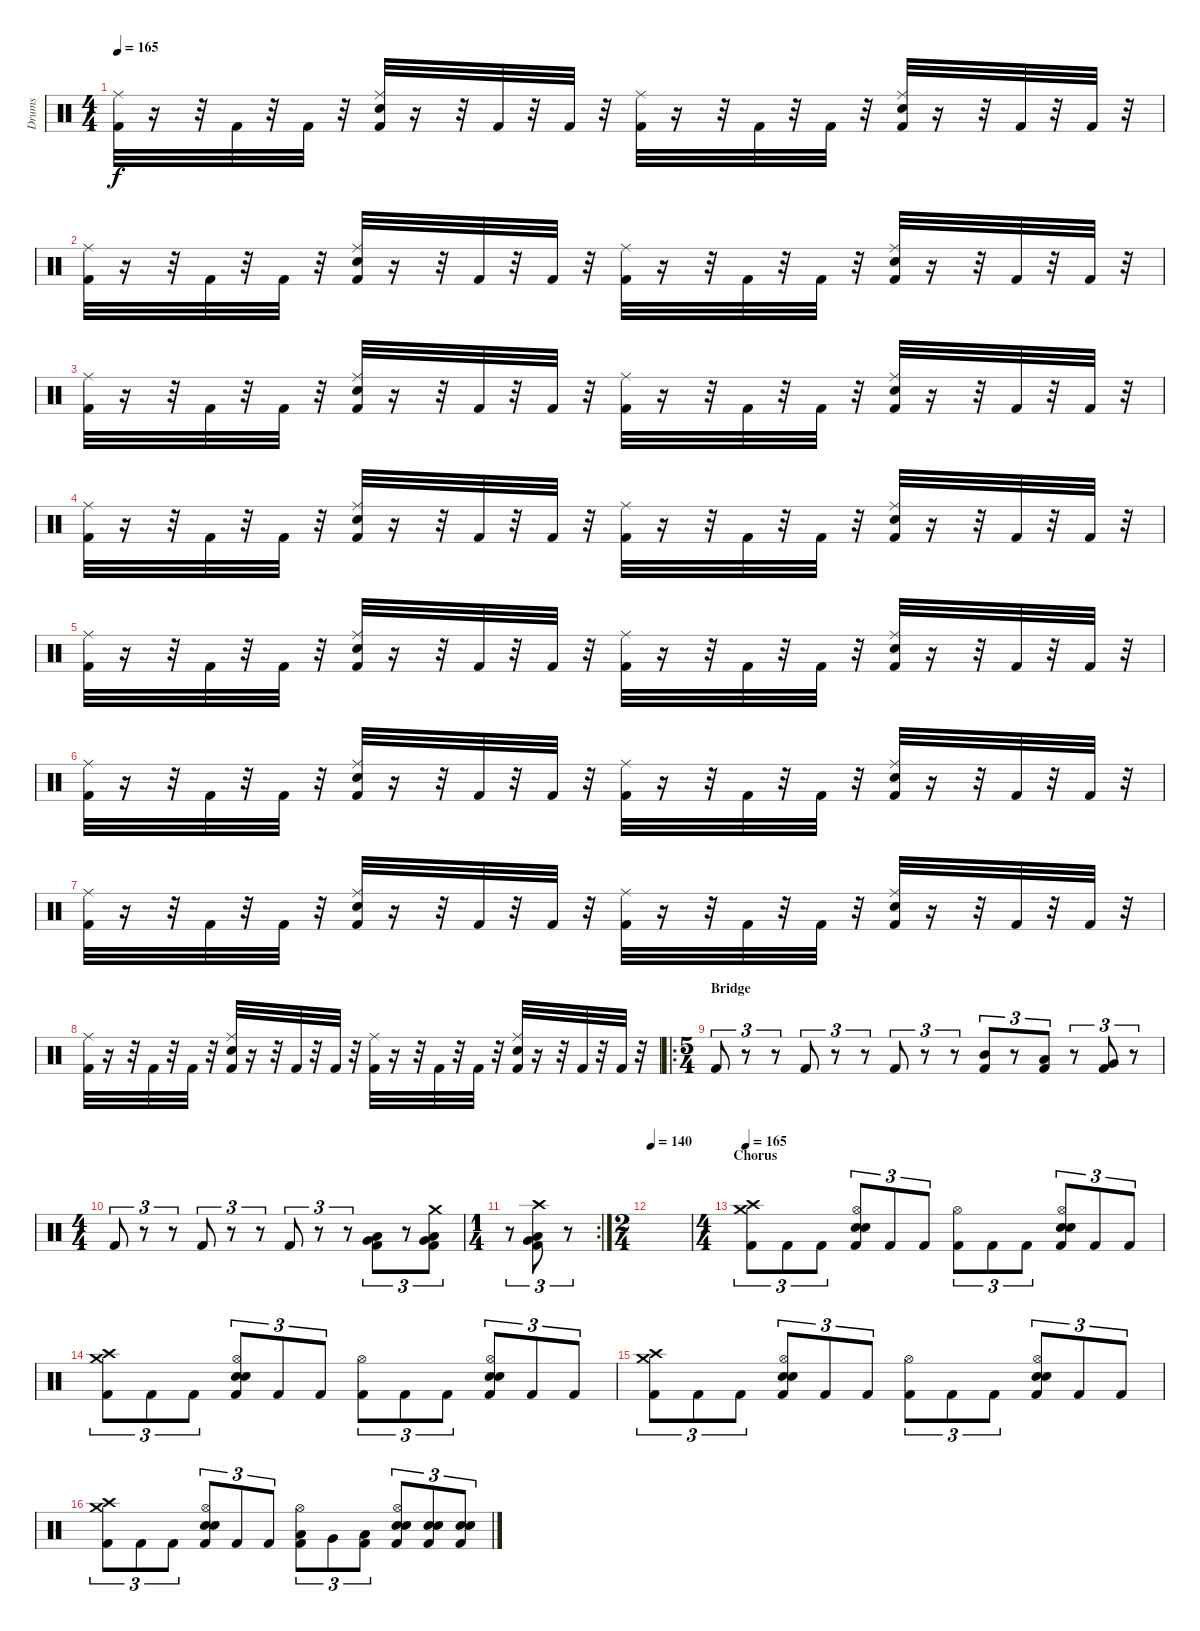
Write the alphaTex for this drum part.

\track ("Drums" "Drums") {instrument percussion}
\staff {score}
\articulation defaults
\ts (4 4)
\tempo 165
\clef neutral
\ks c
("Kick (hit) 2" "Ride (middle)").32{dy f} r.16 r.32 "Kick (hit) 2".32 r.32 "Kick (hit) 2".32 r.32 ("Ride (middle)" "Snare (hit) 2" "Kick (hit) 2").32 r.16 r.32 "Kick (hit) 2".32 r.32 "Kick (hit) 2".32 r.32 ("Kick (hit) 2" "Ride (middle)").32 r.16 r.32 "Kick (hit) 2".32 r.32 "Kick (hit) 2".32 r.32 ("Snare (hit) 2" "Ride (middle)" "Kick (hit) 2").32 r.16 r.32 "Kick (hit) 2".32 r.32 "Kick (hit) 2".32 r.32 |
("Ride (middle)" "Kick (hit) 2").32 r.16 r.32 "Kick (hit) 2".32 r.32 "Kick (hit) 2".32 r.32 ("Ride (middle)" "Snare (hit) 2" "Kick (hit) 2").32 r.16 r.32 "Kick (hit) 2".32 r.32 "Kick (hit) 2".32 r.32 ("Ride (middle)" "Kick (hit) 2").32 r.16 r.32 "Kick (hit) 2".32 r.32 "Kick (hit) 2".32 r.32 ("Ride (middle)" "Snare (hit) 2" "Kick (hit) 2").32 r.16 r.32 "Kick (hit) 2".32 r.32 "Kick (hit) 2".32 r.32 |
("Kick (hit) 2" "Ride (middle)").32 r.16 r.32 "Kick (hit) 2".32 r.32 "Kick (hit) 2".32 r.32 ("Ride (middle)" "Snare (hit) 2" "Kick (hit) 2").32 r.16 r.32 "Kick (hit) 2".32 r.32 "Kick (hit) 2".32 r.32 ("Kick (hit) 2" "Ride (middle)").32 r.16 r.32 "Kick (hit) 2".32 r.32 "Kick (hit) 2".32 r.32 ("Snare (hit) 2" "Ride (middle)" "Kick (hit) 2").32 r.16 r.32 "Kick (hit) 2".32 r.32 "Kick (hit) 2".32 r.32 |
("Ride (middle)" "Kick (hit) 2").32 r.16 r.32 "Kick (hit) 2".32 r.32 "Kick (hit) 2".32 r.32 ("Ride (middle)" "Snare (hit) 2" "Kick (hit) 2").32 r.16 r.32 "Kick (hit) 2".32 r.32 "Kick (hit) 2".32 r.32 ("Ride (middle)" "Kick (hit) 2").32 r.16 r.32 "Kick (hit) 2".32 r.32 "Kick (hit) 2".32 r.32 ("Ride (middle)" "Snare (hit) 2" "Kick (hit) 2").32 r.16 r.32 "Kick (hit) 2".32 r.32 "Kick (hit) 2".32 r.32 |
("Ride (middle)" "Kick (hit) 2").32 r.16 r.32 "Kick (hit) 2".32 r.32 "Kick (hit) 2".32 r.32 ("Ride (middle)" "Snare (hit) 2" "Kick (hit) 2").32 r.16 r.32 "Kick (hit) 2".32 r.32 "Kick (hit) 2".32 r.32 ("Ride (middle)" "Kick (hit) 2").32 r.16 r.32 "Kick (hit) 2".32 r.32 "Kick (hit) 2".32 r.32 ("Ride (middle)" "Snare (hit) 2" "Kick (hit) 2").32 r.16 r.32 "Kick (hit) 2".32 r.32 "Kick (hit) 2".32 r.32 |
("Ride (middle)" "Kick (hit) 2").32 r.16 r.32 "Kick (hit) 2".32 r.32 "Kick (hit) 2".32 r.32 ("Ride (middle)" "Snare (hit) 2" "Kick (hit) 2").32 r.16 r.32 "Kick (hit) 2".32 r.32 "Kick (hit) 2".32 r.32 ("Ride (middle)" "Kick (hit) 2").32 r.16 r.32 "Kick (hit) 2".32 r.32 "Kick (hit) 2".32 r.32 ("Ride (middle)" "Snare (hit) 2" "Kick (hit) 2").32 r.16 r.32 "Kick (hit) 2".32 r.32 "Kick (hit) 2".32 r.32 |
("Kick (hit) 2" "Ride (middle)").32 r.16 r.32 "Kick (hit) 2".32 r.32 "Kick (hit) 2".32 r.32 ("Ride (middle)" "Snare (hit) 2" "Kick (hit) 2").32 r.16 r.32 "Kick (hit) 2".32 r.32 "Kick (hit) 2".32 r.32 ("Kick (hit) 2" "Ride (middle)").32 r.16 r.32 "Kick (hit) 2".32 r.32 "Kick (hit) 2".32 r.32 ("Snare (hit) 2" "Ride (middle)" "Kick (hit) 2").32 r.16 r.32 "Kick (hit) 2".32 r.32 "Kick (hit) 2".32 r.32 |
("Ride (middle)" "Kick (hit) 2").32 r.16 r.32 "Kick (hit) 2".32 r.32 "Kick (hit) 2".32 r.32 ("Ride (middle)" "Snare (hit) 2" "Kick (hit) 2").32 r.16 r.32 "Kick (hit) 2".32 r.32 "Kick (hit) 2".32 r.32 ("Ride (middle)" "Kick (hit) 2").32 r.16 r.32 "Kick (hit) 2".32 r.32 "Kick (hit) 2".32 r.32 ("Ride (middle)" "Snare (hit) 2" "Kick (hit) 2").32 r.16 r.32 "Kick (hit) 2".32 r.32 "Kick (hit) 2".32 r.32 |
\ro
\ts (5 4)
\section ("" "Bridge")
"Kick (hit) 2".8{tu (3 2)} r.8{tu (3 2)} r.8{tu (3 2)} "Kick (hit) 2".8{tu (3 2)} r.8{tu (3 2)} r.8{tu (3 2)} "Kick (hit) 2".8{tu (3 2)} r.8{tu (3 2)} r.8{tu (3 2)} ("Mid Tom (hit)" "Kick (hit) 2").8{tu (3 2)} r.8{tu (3 2)} ("Low Tom (hit)" "Kick (hit) 2").8{tu (3 2)} r.8{tu (3 2)} ("Very Low Tom (hit)" "Kick (hit) 2").8{tu (3 2)} r.8{tu (3 2)} |
\ts (4 4)
"Kick (hit) 2".8{tu (3 2)} r.8{tu (3 2)} r.8{tu (3 2)} "Kick (hit) 2".8{tu (3 2)} r.8{tu (3 2)} r.8{tu (3 2)} "Kick (hit) 2".8{tu (3 2)} r.8{tu (3 2)} r.8{tu (3 2)} ("Very Low Tom (hit)" "Low Floor Tom (hit)" "Kick (hit) 2").8{tu (3 2)} r.8{tu (3 2)} ("Crash medium (hit)" "Low Tom (hit)" "Very Low Tom (hit)" "Kick (hit) 2").8{tu (3 2)} |
\rc 2
\ts (1 4)
r.8{tu (3 2)} ("Crash high (hit)" "Very Low Tom (hit)" "Low Floor Tom (hit)" "Kick (hit) 2").8{tu (3 2)} r.8{tu (3 2)} |
\ts (2 4)
\tempo 140
|
\ts (4 4)
\section ("" "Chorus")
\tempo 165
("Crash high (hit)" "Crash medium (hit)" "Kick (hit) 2").8{tu (3 2)} "Kick (hit) 2".8{tu (3 2)} "Kick (hit) 2".8{tu (3 2)} ("Hi-Hat (open)" "Electric Snare (hit)" "Snare (hit) 2" "Kick (hit) 2").8{tu (3 2)} "Kick (hit) 2".8{tu (3 2)} "Kick (hit) 2".8{tu (3 2)} ("Hi-Hat (open)" "Kick (hit) 2").8{tu (3 2)} "Kick (hit) 2".8{tu (3 2)} "Kick (hit) 2".8{tu (3 2)} ("Hi-Hat (open)" "Electric Snare (hit)" "Snare (hit) 2" "Kick (hit) 2").8{tu (3 2)} "Kick (hit) 2".8{tu (3 2)} "Kick (hit) 2".8{tu (3 2)} |
("Crash high (hit)" "Crash medium (hit)" "Kick (hit) 2").8{tu (3 2)} "Kick (hit) 2".8{tu (3 2)} "Kick (hit) 2".8{tu (3 2)} ("Hi-Hat (open)" "Electric Snare (hit)" "Snare (hit) 2" "Kick (hit) 2").8{tu (3 2)} "Kick (hit) 2".8{tu (3 2)} "Kick (hit) 2".8{tu (3 2)} ("Hi-Hat (open)" "Kick (hit) 2").8{tu (3 2)} "Kick (hit) 2".8{tu (3 2)} "Kick (hit) 2".8{tu (3 2)} ("Hi-Hat (open)" "Electric Snare (hit)" "Snare (hit) 2" "Kick (hit) 2").8{tu (3 2)} "Kick (hit) 2".8{tu (3 2)} "Kick (hit) 2".8{tu (3 2)} |
("Crash high (hit)" "Crash medium (hit)" "Kick (hit) 2").8{tu (3 2)} "Kick (hit) 2".8{tu (3 2)} "Kick (hit) 2".8{tu (3 2)} ("Hi-Hat (open)" "Electric Snare (hit)" "Snare (hit) 2" "Kick (hit) 2").8{tu (3 2)} "Kick (hit) 2".8{tu (3 2)} "Kick (hit) 2".8{tu (3 2)} ("Hi-Hat (open)" "Kick (hit) 2").8{tu (3 2)} "Kick (hit) 2".8{tu (3 2)} "Kick (hit) 2".8{tu (3 2)} ("Hi-Hat (open)" "Electric Snare (hit)" "Snare (hit) 2" "Kick (hit) 2").8{tu (3 2)} "Kick (hit) 2".8{tu (3 2)} "Kick (hit) 2".8{tu (3 2)} |
("Crash high (hit)" "Crash medium (hit)" "Kick (hit) 2").8{tu (3 2)} "Kick (hit) 2".8{tu (3 2)} "Kick (hit) 2".8{tu (3 2)} ("Hi-Hat (open)" "Electric Snare (hit)" "Snare (hit) 2" "Kick (hit) 2").8{tu (3 2)} "Kick (hit) 2".8{tu (3 2)} "Kick (hit) 2".8{tu (3 2)} ("Hi-Hat (open)" "Low Tom (hit)" "Kick (hit) 2").8{tu (3 2)} "Very Low Tom (hit)".8{tu (3 2)} ("Low Floor Tom (hit)" "Kick (hit) 2").8{tu (3 2)} ("Hi-Hat (open)" "Electric Snare (hit)" "Snare (hit) 2" "Kick (hit) 2").8{tu (3 2)} ("Electric Snare (hit)" "Snare (hit) 2" "Kick (hit) 2").8{tu (3 2)} ("Electric Snare (hit)" "Snare (hit) 2" "Kick (hit) 2").8{tu (3 2)}
